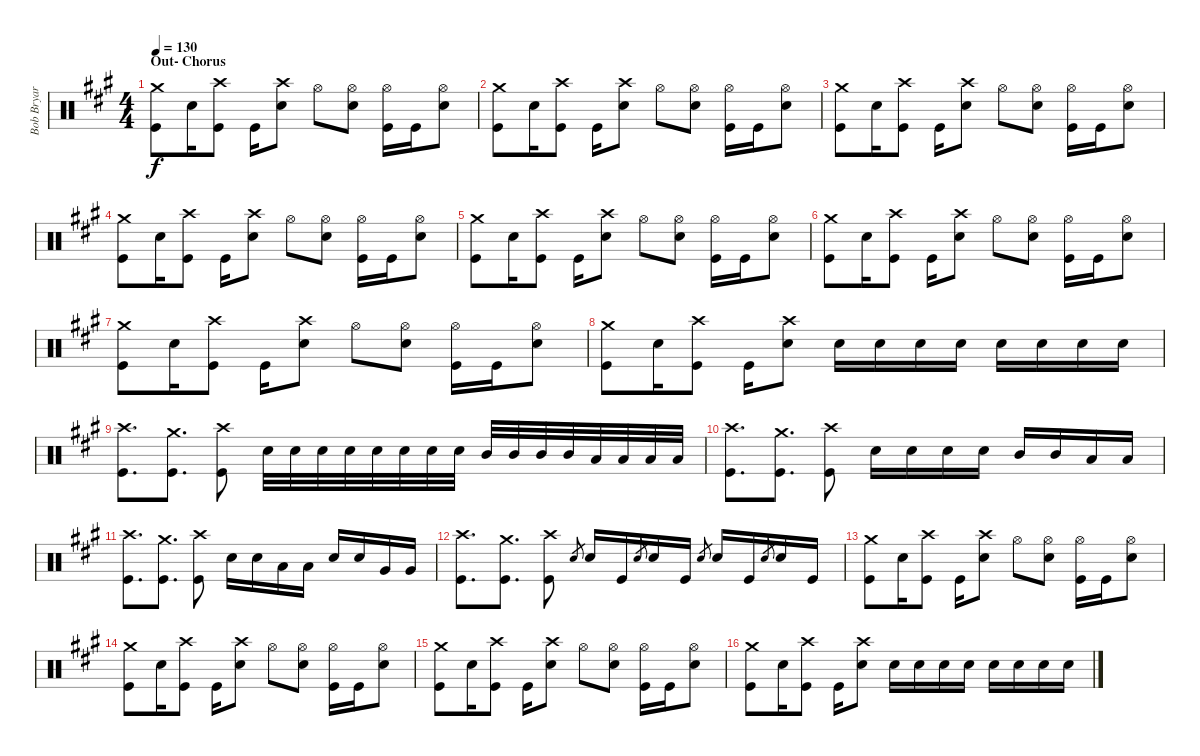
\track ("Bob Bryar" "Bob Bryar") {instrument percussion}
\staff {score}
\articulation defaults
\ts (4 4)
\section ("" "Out- Chorus")
\tempo 130
\clef neutral
\ks a
("Crash medium (hit)" "Kick (hit)").8{dy f} "Snare (hit) 2".16 ("Crash high (hit)" "Kick (hit)").8 "Kick (hit)".16 ("Crash high (hit)" "Snare (hit) 2").8 "Hi-Hat (open)".8 ("Hi-Hat (open)" "Snare (hit) 2").8 ("Hi-Hat (open)" "Kick (hit)").16 "Kick (hit)".16 ("Hi-Hat (open)" "Snare (hit) 2").8 |
("Crash medium (hit)" "Kick (hit)").8 "Snare (hit) 2".16 ("Crash high (hit)" "Kick (hit)").8 "Kick (hit)".16 ("Crash high (hit)" "Snare (hit) 2").8 "Hi-Hat (open)".8 ("Hi-Hat (open)" "Snare (hit) 2").8 ("Hi-Hat (open)" "Kick (hit)").16 "Kick (hit)".16 ("Hi-Hat (open)" "Snare (hit) 2").8 |
("Crash medium (hit)" "Kick (hit)").8 "Snare (hit) 2".16 ("Crash high (hit)" "Kick (hit)").8 "Kick (hit)".16 ("Crash high (hit)" "Snare (hit) 2").8 "Hi-Hat (open)".8 ("Hi-Hat (open)" "Snare (hit) 2").8 ("Hi-Hat (open)" "Kick (hit)").16 "Kick (hit)".16 ("Hi-Hat (open)" "Snare (hit) 2").8 |
("Crash medium (hit)" "Kick (hit)").8 "Snare (hit) 2".16 ("Crash high (hit)" "Kick (hit)").8 "Kick (hit)".16 ("Crash high (hit)" "Snare (hit) 2").8 "Hi-Hat (open)".8 ("Hi-Hat (open)" "Snare (hit) 2").8 ("Hi-Hat (open)" "Kick (hit)").16 "Kick (hit)".16 ("Hi-Hat (open)" "Snare (hit) 2").8 |
("Crash medium (hit)" "Kick (hit)").8 "Snare (hit) 2".16 ("Crash high (hit)" "Kick (hit)").8 "Kick (hit)".16 ("Crash high (hit)" "Snare (hit) 2").8 "Hi-Hat (open)".8 ("Hi-Hat (open)" "Snare (hit) 2").8 ("Hi-Hat (open)" "Kick (hit)").16 "Kick (hit)".16 ("Hi-Hat (open)" "Snare (hit) 2").8 |
("Crash medium (hit)" "Kick (hit)").8 "Snare (hit) 2".16 ("Crash high (hit)" "Kick (hit)").8 "Kick (hit)".16 ("Crash high (hit)" "Snare (hit) 2").8 "Hi-Hat (open)".8 ("Hi-Hat (open)" "Snare (hit) 2").8 ("Hi-Hat (open)" "Kick (hit)").16 "Kick (hit)".16 ("Hi-Hat (open)" "Snare (hit) 2").8 |
("Crash medium (hit)" "Kick (hit)").8 "Snare (hit) 2".16 ("Crash high (hit)" "Kick (hit)").8 "Kick (hit)".16 ("Crash high (hit)" "Snare (hit) 2").8 "Hi-Hat (open)".8 ("Hi-Hat (open)" "Snare (hit) 2").8 ("Hi-Hat (open)" "Kick (hit)").16 "Kick (hit)".16 ("Hi-Hat (open)" "Snare (hit) 2").8 |
("Crash medium (hit)" "Kick (hit)").8 "Snare (hit) 2".16 ("Crash high (hit)" "Kick (hit)").8 "Kick (hit)".16 ("Crash high (hit)" "Snare (hit) 2").8 "Snare (hit) 2".16 "Snare (hit) 2".16 "Snare (hit) 2".16 "Snare (hit) 2".16 "Snare (hit) 2".16 "Snare (hit) 2".16 "Snare (hit) 2".16 "Snare (hit) 2".16 |
("Crash high (hit)" "Kick (hit)").8{d} ("Crash medium (hit)" "Kick (hit)").8{d} ("Crash high (hit)" "Kick (hit)").8 "Snare (hit) 2".32 "Snare (hit) 2".32 "Snare (hit) 2".32 "Snare (hit) 2".32 "Snare (hit) 2".32 "Snare (hit) 2".32 "Snare (hit) 2".32 "Snare (hit) 2".32 "Mid Tom (hit)".32 "Mid Tom (hit)".32 "Mid Tom (hit)".32 "Mid Tom (hit)".32 "Low Tom (hit)".32 "Low Tom (hit)".32 "Low Tom (hit)".32 "Low Tom (hit)".32 |
("Crash high (hit)" "Kick (hit)").8{d} ("Crash medium (hit)" "Kick (hit)").8{d} ("Crash high (hit)" "Kick (hit)").8 "Snare (hit) 2".16 "Snare (hit) 2".16 "Snare (hit) 2".16 "Snare (hit) 2".16 "Mid Tom (hit)".16 "Mid Tom (hit)".16 "Low Tom (hit)".16 "Low Tom (hit)".16 |
("Crash high (hit)" "Kick (hit)").8{d} ("Crash medium (hit)" "Kick (hit)").8{d} ("Crash high (hit)" "Kick (hit)").8 "Snare (hit) 2".16 "Snare (hit) 2".16 "Low Tom (hit)".16 "Low Tom (hit)".16 "Snare (hit) 2".16 "Snare (hit) 2".16 "Very Low Tom (hit)".16 "Very Low Tom (hit)".16 |
("Crash high (hit)" "Kick (hit)").8{d} ("Crash medium (hit)" "Kick (hit)").8{d} ("Crash high (hit)" "Kick (hit)").8 "Snare (hit) 2".8{gr} "Snare (hit) 2".16 "Kick (hit)".16 "Snare (hit) 2".8{gr} "Snare (hit) 2".16 "Kick (hit)".16 "Snare (hit) 2".8{gr} "Snare (hit) 2".16 "Kick (hit)".16 "Snare (hit) 2".8{gr} "Snare (hit) 2".16 "Kick (hit)".16 |
("Crash medium (hit)" "Kick (hit)").8 "Snare (hit) 2".16 ("Crash high (hit)" "Kick (hit)").8 "Kick (hit)".16 ("Crash high (hit)" "Snare (hit) 2").8 "Hi-Hat (open)".8 ("Hi-Hat (open)" "Snare (hit) 2").8 ("Hi-Hat (open)" "Kick (hit)").16 "Kick (hit)".16 ("Hi-Hat (open)" "Snare (hit) 2").8 |
("Crash medium (hit)" "Kick (hit)").8 "Snare (hit) 2".16 ("Crash high (hit)" "Kick (hit)").8 "Kick (hit)".16 ("Crash high (hit)" "Snare (hit) 2").8 "Hi-Hat (open)".8 ("Hi-Hat (open)" "Snare (hit) 2").8 ("Hi-Hat (open)" "Kick (hit)").16 "Kick (hit)".16 ("Hi-Hat (open)" "Snare (hit) 2").8 |
("Crash medium (hit)" "Kick (hit)").8 "Snare (hit) 2".16 ("Crash high (hit)" "Kick (hit)").8 "Kick (hit)".16 ("Crash high (hit)" "Snare (hit) 2").8 "Hi-Hat (open)".8 ("Hi-Hat (open)" "Snare (hit) 2").8 ("Hi-Hat (open)" "Kick (hit)").16 "Kick (hit)".16 ("Hi-Hat (open)" "Snare (hit) 2").8 |
("Crash medium (hit)" "Kick (hit)").8 "Snare (hit) 2".16 ("Crash high (hit)" "Kick (hit)").8 "Kick (hit)".16 ("Crash high (hit)" "Snare (hit) 2").8 "Snare (hit) 2".16 "Snare (hit) 2".16 "Snare (hit) 2".16 "Snare (hit) 2".16 "Snare (hit) 2".16 "Snare (hit) 2".16 "Snare (hit) 2".16 "Snare (hit) 2".16
